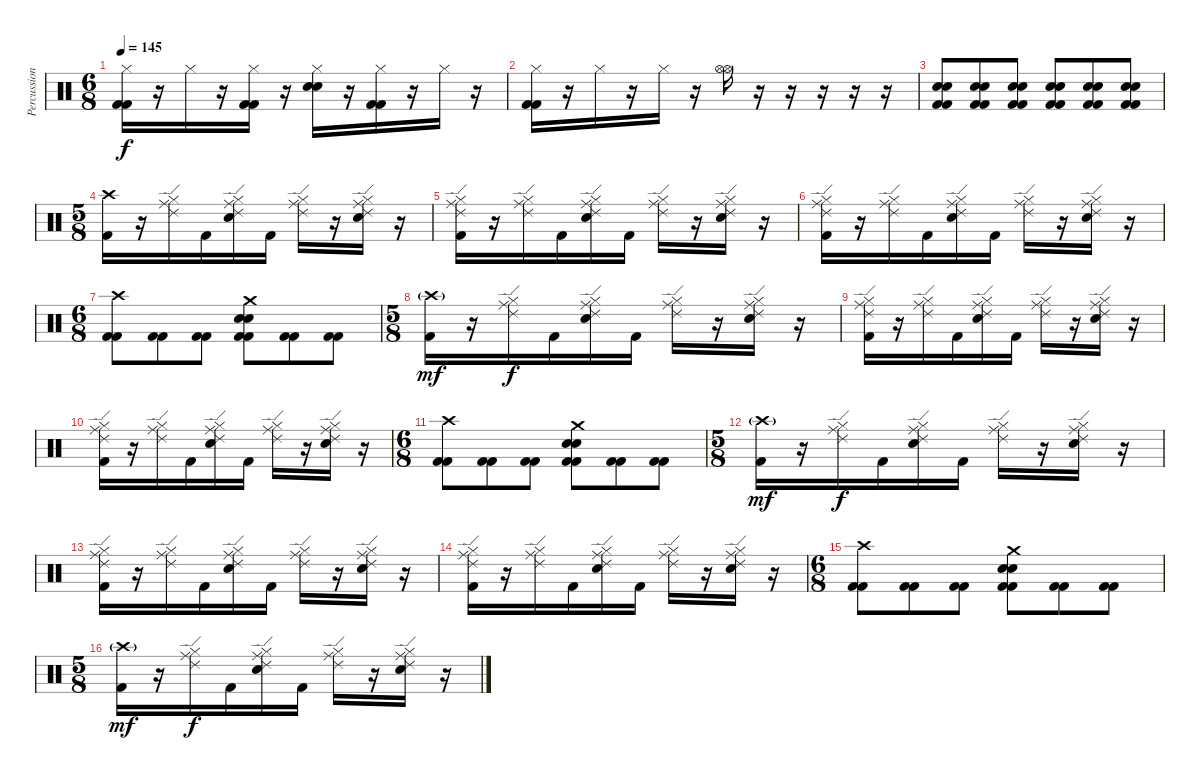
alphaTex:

\track ("Percussion" "Percussion") {instrument percussion}
\staff {score}
\articulation defaults
\ts (6 8)
\tempo 145
\clef neutral
\ks c
("Hi-Hat (closed)" "Kick (hit) 2" "Kick (hit) 2").16{dy f} r.16 "Hi-Hat (closed)".16 r.16 ("Hi-Hat (closed)" "Kick (hit) 2" "Kick (hit) 2").16 r.16 ("Hi-Hat (closed)" "Electric Snare (hit)" "Electric Snare (hit)").16 r.16 ("Hi-Hat (closed)" "Kick (hit) 2" "Kick (hit) 2").16 r.16 "Hi-Hat (closed)".16 r.16 |
("Hi-Hat (closed)" "Kick (hit) 2" "Kick (hit) 2").16 r.16 "Hi-Hat (closed)".16 r.16 "Hi-Hat (closed)".16 r.16 ("Hi-Hat (open)" "Hi-Hat (open)").16 r.16 r.16 r.16 r.16 r.16 |
("Electric Snare (hit)" "Electric Snare (hit)" "Kick (hit) 2" "Kick (hit) 2").8 ("Electric Snare (hit)" "Electric Snare (hit)" "Kick (hit) 2" "Kick (hit) 2").8 ("Electric Snare (hit)" "Electric Snare (hit)" "Kick (hit) 2" "Kick (hit) 2").8 ("Electric Snare (hit)" "Electric Snare (hit)" "Kick (hit) 2" "Kick (hit) 2").8 ("Electric Snare (hit)" "Electric Snare (hit)" "Kick (hit) 2" "Kick (hit) 2").8 ("Electric Snare (hit)" "Electric Snare (hit)" "Kick (hit) 2" "Kick (hit) 2").8 |
\ts (5 8)
("Crash high (hit)" "Kick (hit) 2").16 r.16 ("Ride (middle)" "Ride (edge) 2" "Hi-Hat (closed)").16 "Kick (hit) 2".16 ("Ride (middle)" "Electric Snare (hit)" "Ride (edge) 2" "Hi-Hat (closed)").16 "Kick (hit) 2".16 ("Ride (middle)" "Ride (edge) 2" "Hi-Hat (closed)").16 r.16 ("Ride (middle)" "Electric Snare (hit)" "Ride (edge) 2" "Hi-Hat (closed)").16 r.16 |
("Ride (middle)" "Kick (hit) 2" "Ride (edge) 2" "Hi-Hat (closed)").16 r.16 ("Ride (middle)" "Ride (edge) 2" "Hi-Hat (closed)").16 "Kick (hit) 2".16 ("Ride (middle)" "Electric Snare (hit)" "Ride (edge) 2" "Hi-Hat (closed)").16 "Kick (hit) 2".16 ("Ride (middle)" "Ride (edge) 2" "Hi-Hat (closed)").16 r.16 ("Ride (middle)" "Electric Snare (hit)" "Ride (edge) 2" "Hi-Hat (closed)").16 r.16 |
("Ride (middle)" "Kick (hit) 2" "Ride (edge) 2" "Hi-Hat (closed)").16 r.16 ("Ride (middle)" "Ride (edge) 2" "Hi-Hat (closed)").16 "Kick (hit) 2".16 ("Ride (middle)" "Electric Snare (hit)" "Ride (edge) 2" "Hi-Hat (closed)").16 "Kick (hit) 2".16 ("Ride (middle)" "Ride (edge) 2" "Hi-Hat (closed)").16 r.16 ("Ride (middle)" "Electric Snare (hit)" "Ride (edge) 2" "Hi-Hat (closed)").16 r.16 |
\ts (6 8)
("Crash high (hit)" "Kick (hit) 2" "Kick (hit) 2").8 ("Kick (hit) 2" "Kick (hit) 2").8 ("Kick (hit) 2" "Kick (hit) 2").8 ("Crash medium (hit)" "Electric Snare (hit)" "Electric Snare (hit)" "Kick (hit) 2" "Kick (hit) 2").8 ("Kick (hit) 2" "Kick (hit) 2").8 ("Kick (hit) 2" "Kick (hit) 2").8 |
\ts (5 8)
("Crash high (hit)"{g} "Kick (hit) 2").16{dy mf} r.16 ("Ride (middle)" "Ride (edge) 2" "Hi-Hat (closed)").16{dy f} "Kick (hit) 2".16 ("Ride (middle)" "Electric Snare (hit)" "Ride (edge) 2" "Hi-Hat (closed)").16 "Kick (hit) 2".16 ("Ride (middle)" "Ride (edge) 2" "Hi-Hat (closed)").16 r.16 ("Ride (middle)" "Electric Snare (hit)" "Ride (edge) 2" "Hi-Hat (closed)").16 r.16 |
("Ride (middle)" "Kick (hit) 2" "Ride (edge) 2" "Hi-Hat (closed)").16 r.16 ("Ride (middle)" "Ride (edge) 2" "Hi-Hat (closed)").16 "Kick (hit) 2".16 ("Ride (middle)" "Electric Snare (hit)" "Ride (edge) 2" "Hi-Hat (closed)").16 "Kick (hit) 2".16 ("Ride (middle)" "Ride (edge) 2" "Hi-Hat (closed)").16 r.16 ("Ride (middle)" "Electric Snare (hit)" "Ride (edge) 2" "Hi-Hat (closed)").16 r.16 |
("Ride (middle)" "Kick (hit) 2" "Ride (edge) 2" "Hi-Hat (closed)").16 r.16 ("Ride (middle)" "Ride (edge) 2" "Hi-Hat (closed)").16 "Kick (hit) 2".16 ("Ride (middle)" "Electric Snare (hit)" "Ride (edge) 2" "Hi-Hat (closed)").16 "Kick (hit) 2".16 ("Ride (middle)" "Ride (edge) 2" "Hi-Hat (closed)").16 r.16 ("Ride (middle)" "Electric Snare (hit)" "Ride (edge) 2" "Hi-Hat (closed)").16 r.16 |
\ts (6 8)
("Crash high (hit)" "Kick (hit) 2" "Kick (hit) 2").8 ("Kick (hit) 2" "Kick (hit) 2").8 ("Kick (hit) 2" "Kick (hit) 2").8 ("Crash medium (hit)" "Electric Snare (hit)" "Electric Snare (hit)" "Kick (hit) 2" "Kick (hit) 2").8 ("Kick (hit) 2" "Kick (hit) 2").8 ("Kick (hit) 2" "Kick (hit) 2").8 |
\ts (5 8)
("Crash high (hit)"{g} "Kick (hit) 2").16{dy mf} r.16 ("Ride (middle)" "Ride (edge) 2" "Hi-Hat (closed)").16{dy f} "Kick (hit) 2".16 ("Ride (middle)" "Electric Snare (hit)" "Ride (edge) 2" "Hi-Hat (closed)").16 "Kick (hit) 2".16 ("Ride (middle)" "Ride (edge) 2" "Hi-Hat (closed)").16 r.16 ("Ride (middle)" "Electric Snare (hit)" "Ride (edge) 2" "Hi-Hat (closed)").16 r.16 |
("Ride (middle)" "Kick (hit) 2" "Ride (edge) 2" "Hi-Hat (closed)").16 r.16 ("Ride (middle)" "Ride (edge) 2" "Hi-Hat (closed)").16 "Kick (hit) 2".16 ("Ride (middle)" "Electric Snare (hit)" "Ride (edge) 2" "Hi-Hat (closed)").16 "Kick (hit) 2".16 ("Ride (middle)" "Ride (edge) 2" "Hi-Hat (closed)").16 r.16 ("Ride (middle)" "Electric Snare (hit)" "Ride (edge) 2" "Hi-Hat (closed)").16 r.16 |
("Ride (middle)" "Kick (hit) 2" "Ride (edge) 2" "Hi-Hat (closed)").16 r.16 ("Ride (middle)" "Ride (edge) 2" "Hi-Hat (closed)").16 "Kick (hit) 2".16 ("Ride (middle)" "Electric Snare (hit)" "Ride (edge) 2" "Hi-Hat (closed)").16 "Kick (hit) 2".16 ("Ride (middle)" "Ride (edge) 2" "Hi-Hat (closed)").16 r.16 ("Ride (middle)" "Electric Snare (hit)" "Ride (edge) 2" "Hi-Hat (closed)").16 r.16 |
\ts (6 8)
("Crash high (hit)" "Kick (hit) 2" "Kick (hit) 2").8 ("Kick (hit) 2" "Kick (hit) 2").8 ("Kick (hit) 2" "Kick (hit) 2").8 ("Crash medium (hit)" "Electric Snare (hit)" "Electric Snare (hit)" "Kick (hit) 2" "Kick (hit) 2").8 ("Kick (hit) 2" "Kick (hit) 2").8 ("Kick (hit) 2" "Kick (hit) 2").8 |
\ts (5 8)
("Crash high (hit)"{g} "Kick (hit) 2").16{dy mf} r.16 ("Ride (middle)" "Ride (edge) 2" "Hi-Hat (closed)").16{dy f} "Kick (hit) 2".16 ("Ride (middle)" "Electric Snare (hit)" "Ride (edge) 2" "Hi-Hat (closed)").16 "Kick (hit) 2".16 ("Ride (middle)" "Ride (edge) 2" "Hi-Hat (closed)").16 r.16 ("Ride (middle)" "Electric Snare (hit)" "Ride (edge) 2" "Hi-Hat (closed)").16 r.16
